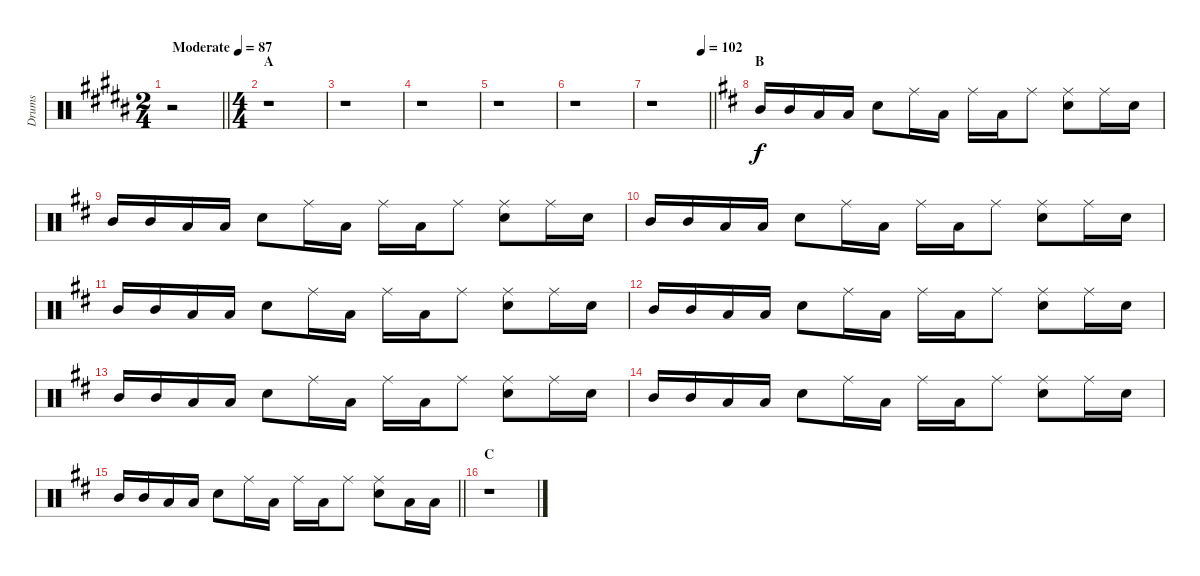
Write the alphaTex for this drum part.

\track ("Drums" "Drums") {instrument percussion}
\staff {score}
\articulation defaults
\ts (2 4)
\tempo (87 "Moderate")
\clef neutral
\barLineRight lightlight
\ks b
r.2{dy f} |
\ts (4 4)
\section ("" "A")
r.1 |
r.1 |
r.1 |
r.1 |
r.1 |
\tempo (102 0.875)
\barLineRight lightlight
r.1 |
\section ("" "B")
\ks d "Mid Tom (hit)".16 "Mid Tom (hit)".16 "Low Tom (hit)".16 "Low Tom (hit)".16 "Snare (hit) 2".8 "Ride (middle)".16 "Low Tom (hit)".16 "Ride (middle)".16 "Low Tom (hit)".16 "Ride (middle)".8
("Ride (middle)" "Snare (hit) 2").8 "Ride (middle)".16 "Snare (hit) 2".16 |
"Mid Tom (hit)".16 "Mid Tom (hit)".16 "Low Tom (hit)".16 "Low Tom (hit)".16 "Snare (hit) 2".8 "Ride (middle)".16 "Low Tom (hit)".16 "Ride (middle)".16 "Low Tom (hit)".16 "Ride (middle)".8 ("Ride (middle)" "Snare (hit) 2").8 "Ride (middle)".16 "Snare (hit) 2".16 |
"Mid Tom (hit)".16 "Mid Tom (hit)".16 "Low Tom (hit)".16 "Low Tom (hit)".16 "Snare (hit) 2".8 "Ride (middle)".16 "Low Tom (hit)".16 "Ride (middle)".16 "Low Tom (hit)".16 "Ride (middle)".8 ("Ride (middle)" "Snare (hit) 2").8 "Ride (middle)".16 "Snare (hit) 2".16 |
"Mid Tom (hit)".16 "Mid Tom (hit)".16 "Low Tom (hit)".16 "Low Tom (hit)".16 "Snare (hit) 2".8 "Ride (middle)".16 "Low Tom (hit)".16 "Ride (middle)".16 "Low Tom (hit)".16 "Ride (middle)".8 ("Ride (middle)" "Snare (hit) 2").8 "Ride (middle)".16 "Snare (hit) 2".16 |
"Mid Tom (hit)".16 "Mid Tom (hit)".16 "Low Tom (hit)".16 "Low Tom (hit)".16 "Snare (hit) 2".8 "Ride (middle)".16 "Low Tom (hit)".16 "Ride (middle)".16 "Low Tom (hit)".16 "Ride (middle)".8 ("Ride (middle)" "Snare (hit) 2").8 "Ride (middle)".16 "Snare (hit) 2".16 |
"Mid Tom (hit)".16 "Mid Tom (hit)".16 "Low Tom (hit)".16 "Low Tom (hit)".16 "Snare (hit) 2".8 "Ride (middle)".16 "Low Tom (hit)".16 "Ride (middle)".16 "Low Tom (hit)".16 "Ride (middle)".8 ("Ride (middle)" "Snare (hit) 2").8 "Ride (middle)".16 "Snare (hit) 2".16 |
"Mid Tom (hit)".16 "Mid Tom (hit)".16 "Low Tom (hit)".16 "Low Tom (hit)".16 "Snare (hit) 2".8 "Ride (middle)".16 "Low Tom (hit)".16 "Ride (middle)".16 "Low Tom (hit)".16 "Ride (middle)".8 ("Ride (middle)" "Snare (hit) 2").8 "Ride (middle)".16 "Snare (hit) 2".16 |
\barLineRight lightlight "Mid Tom (hit)".16 "Mid Tom (hit)".16 "Low Tom (hit)".16 "Low Tom (hit)".16 "Snare (hit) 2".8 "Ride (middle)".16 "Low Tom (hit)".16 "Ride (middle)".16 "Low Tom (hit)".16 "Ride (middle)".8
("Ride (middle)" "Snare (hit) 2").8 "Low Tom (hit)".16 "Low Tom (hit)".16 |
\section ("" "C")
r.1
